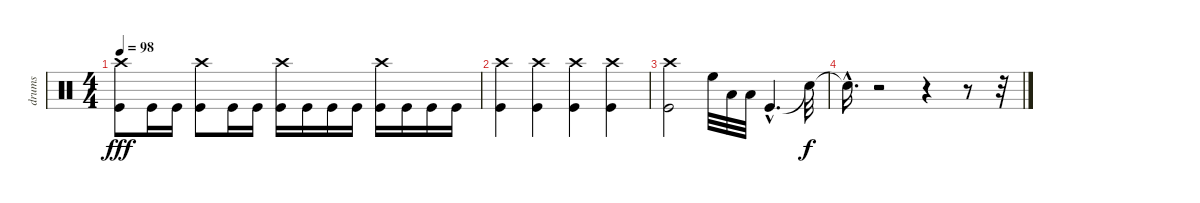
\track ("drums" "drums") {instrument percussion}
\staff {score}
\articulation defaults
\ts (4 4)
\tempo 98
\clef neutral
\ks c
("Kick (hit)" "Crash high (hit)").8{dy fff} "Kick (hit)".16 "Kick (hit)".16 ("Kick (hit)" "Crash high (hit)").8 "Kick (hit)".16 "Kick (hit)".16 ("Kick (hit)" "Crash high (hit)").16 "Kick (hit)".16 "Kick (hit)".16 "Kick (hit)".16 ("Crash high (hit)" "Kick (hit)").16 "Kick (hit)".16 "Kick (hit)".16 "Kick (hit)".16 |
("Kick (hit)" "Crash high (hit)").4 ("Kick (hit)" "Crash high (hit)").4 ("Kick (hit)" "Crash high (hit)").4 ("Crash high (hit)" "Kick (hit)").4 |
("Kick (hit)" "Crash high (hit)").2 "High Floor Tom (hit)".32 "Low Tom (hit)".32 "Low Floor Tom (hit)".32 "Kick (hit)"{hac}.4{d} "Snare (hit)"{t}.32{dy f} |
"Snare (hit)"{hac t}.16{d} r.2 r.4 r.8 r.32
